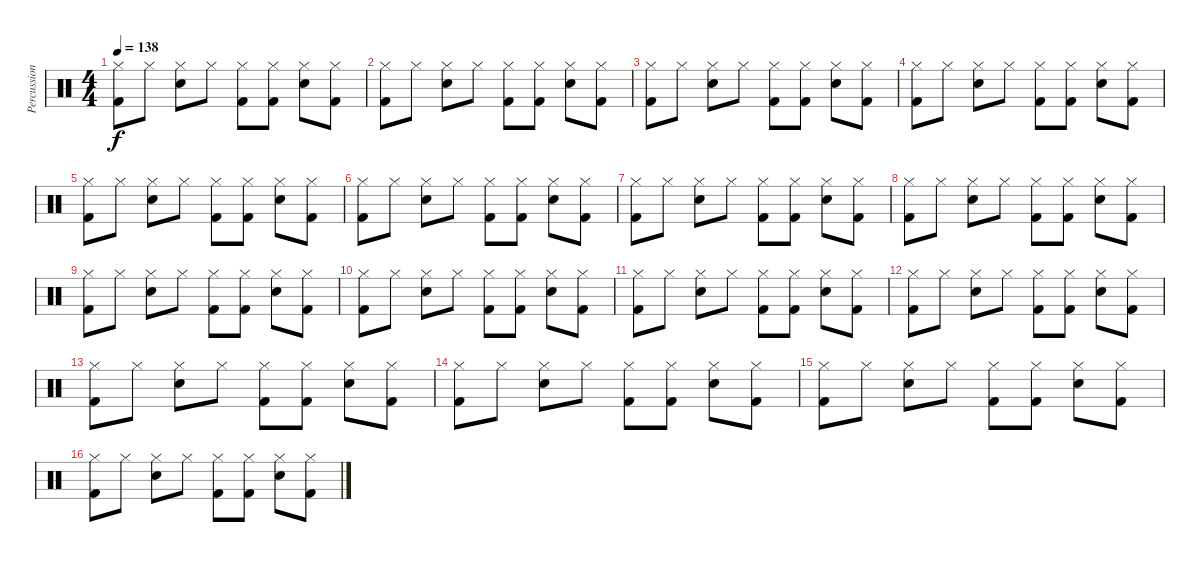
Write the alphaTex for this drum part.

\track ("Percussion" "Percussion") {instrument percussion}
\staff {score}
\articulation defaults
\ts (4 4)
\tempo 138
\clef neutral
\ks c
("Hi-Hat (closed)" "Kick (hit) 2").8{dy f} "Hi-Hat (closed)".8 ("Hi-Hat (closed)" "Snare (hit) 2").8 "Hi-Hat (closed)".8 ("Hi-Hat (closed)" "Kick (hit) 2").8 ("Hi-Hat (closed)" "Kick (hit) 2").8 ("Hi-Hat (closed)" "Snare (hit) 2").8 ("Hi-Hat (closed)" "Kick (hit) 2").8 |
("Hi-Hat (closed)" "Kick (hit) 2").8 "Hi-Hat (closed)".8 ("Hi-Hat (closed)" "Snare (hit) 2").8 "Hi-Hat (closed)".8 ("Hi-Hat (closed)" "Kick (hit) 2").8 ("Hi-Hat (closed)" "Kick (hit) 2").8 ("Hi-Hat (closed)" "Snare (hit) 2").8 ("Hi-Hat (closed)" "Kick (hit) 2").8 |
("Hi-Hat (closed)" "Kick (hit) 2").8 "Hi-Hat (closed)".8 ("Hi-Hat (closed)" "Snare (hit) 2").8 "Hi-Hat (closed)".8 ("Hi-Hat (closed)" "Kick (hit) 2").8 ("Hi-Hat (closed)" "Kick (hit) 2").8 ("Hi-Hat (closed)" "Snare (hit) 2").8 ("Hi-Hat (closed)" "Kick (hit) 2").8 |
("Hi-Hat (closed)" "Kick (hit) 2").8 "Hi-Hat (closed)".8 ("Hi-Hat (closed)" "Snare (hit) 2").8 "Hi-Hat (closed)".8 ("Hi-Hat (closed)" "Kick (hit) 2").8 ("Hi-Hat (closed)" "Kick (hit) 2").8 ("Hi-Hat (closed)" "Snare (hit) 2").8 ("Hi-Hat (closed)" "Kick (hit) 2").8 |
("Hi-Hat (closed)" "Kick (hit) 2").8 "Hi-Hat (closed)".8 ("Hi-Hat (closed)" "Snare (hit) 2").8 "Hi-Hat (closed)".8 ("Hi-Hat (closed)" "Kick (hit) 2").8 ("Hi-Hat (closed)" "Kick (hit) 2").8 ("Hi-Hat (closed)" "Snare (hit) 2").8 ("Hi-Hat (closed)" "Kick (hit) 2").8 |
("Hi-Hat (closed)" "Kick (hit) 2").8 "Hi-Hat (closed)".8 ("Hi-Hat (closed)" "Snare (hit) 2").8 "Hi-Hat (closed)".8 ("Hi-Hat (closed)" "Kick (hit) 2").8 ("Hi-Hat (closed)" "Kick (hit) 2").8 ("Hi-Hat (closed)" "Snare (hit) 2").8 ("Hi-Hat (closed)" "Kick (hit) 2").8 |
("Hi-Hat (closed)" "Kick (hit) 2").8 "Hi-Hat (closed)".8 ("Hi-Hat (closed)" "Snare (hit) 2").8 "Hi-Hat (closed)".8 ("Hi-Hat (closed)" "Kick (hit) 2").8 ("Hi-Hat (closed)" "Kick (hit) 2").8 ("Hi-Hat (closed)" "Snare (hit) 2").8 ("Hi-Hat (closed)" "Kick (hit) 2").8 |
("Hi-Hat (closed)" "Kick (hit) 2").8 "Hi-Hat (closed)".8 ("Hi-Hat (closed)" "Snare (hit) 2").8 "Hi-Hat (closed)".8 ("Hi-Hat (closed)" "Kick (hit) 2").8 ("Hi-Hat (closed)" "Kick (hit) 2").8 ("Hi-Hat (closed)" "Snare (hit) 2").8 ("Hi-Hat (closed)" "Kick (hit) 2").8 |
("Hi-Hat (closed)" "Kick (hit) 2").8 "Hi-Hat (closed)".8 ("Hi-Hat (closed)" "Snare (hit) 2").8 "Hi-Hat (closed)".8 ("Hi-Hat (closed)" "Kick (hit) 2").8 ("Hi-Hat (closed)" "Kick (hit) 2").8 ("Hi-Hat (closed)" "Snare (hit) 2").8 ("Hi-Hat (closed)" "Kick (hit) 2").8 |
("Hi-Hat (closed)" "Kick (hit) 2").8 "Hi-Hat (closed)".8 ("Hi-Hat (closed)" "Snare (hit) 2").8 "Hi-Hat (closed)".8 ("Hi-Hat (closed)" "Kick (hit) 2").8 ("Hi-Hat (closed)" "Kick (hit) 2").8 ("Hi-Hat (closed)" "Snare (hit) 2").8 ("Hi-Hat (closed)" "Kick (hit) 2").8 |
("Hi-Hat (closed)" "Kick (hit) 2").8 "Hi-Hat (closed)".8 ("Hi-Hat (closed)" "Snare (hit) 2").8 "Hi-Hat (closed)".8 ("Hi-Hat (closed)" "Kick (hit) 2").8 ("Hi-Hat (closed)" "Kick (hit) 2").8 ("Hi-Hat (closed)" "Snare (hit) 2").8 ("Hi-Hat (closed)" "Kick (hit) 2").8 |
("Hi-Hat (closed)" "Kick (hit) 2").8 "Hi-Hat (closed)".8 ("Hi-Hat (closed)" "Snare (hit) 2").8 "Hi-Hat (closed)".8 ("Hi-Hat (closed)" "Kick (hit) 2").8 ("Hi-Hat (closed)" "Kick (hit) 2").8 ("Hi-Hat (closed)" "Snare (hit) 2").8 ("Hi-Hat (closed)" "Kick (hit) 2").8 |
("Hi-Hat (closed)" "Kick (hit) 2").8 "Hi-Hat (closed)".8 ("Hi-Hat (closed)" "Snare (hit) 2").8 "Hi-Hat (closed)".8 ("Hi-Hat (closed)" "Kick (hit) 2").8 ("Hi-Hat (closed)" "Kick (hit) 2").8 ("Hi-Hat (closed)" "Snare (hit) 2").8 ("Hi-Hat (closed)" "Kick (hit) 2").8 |
("Hi-Hat (closed)" "Kick (hit) 2").8 "Hi-Hat (closed)".8 ("Hi-Hat (closed)" "Snare (hit) 2").8 "Hi-Hat (closed)".8 ("Hi-Hat (closed)" "Kick (hit) 2").8 ("Hi-Hat (closed)" "Kick (hit) 2").8 ("Hi-Hat (closed)" "Snare (hit) 2").8 ("Hi-Hat (closed)" "Kick (hit) 2").8 |
("Hi-Hat (closed)" "Kick (hit) 2").8 "Hi-Hat (closed)".8 ("Hi-Hat (closed)" "Snare (hit) 2").8 "Hi-Hat (closed)".8 ("Hi-Hat (closed)" "Kick (hit) 2").8 ("Hi-Hat (closed)" "Kick (hit) 2").8 ("Hi-Hat (closed)" "Snare (hit) 2").8 ("Hi-Hat (closed)" "Kick (hit) 2").8 |
("Hi-Hat (closed)" "Kick (hit) 2").8 "Hi-Hat (closed)".8 ("Hi-Hat (closed)" "Snare (hit) 2").8 "Hi-Hat (closed)".8 ("Hi-Hat (closed)" "Kick (hit) 2").8 ("Hi-Hat (closed)" "Kick (hit) 2").8 ("Hi-Hat (closed)" "Snare (hit) 2").8 ("Hi-Hat (closed)" "Kick (hit) 2").8
